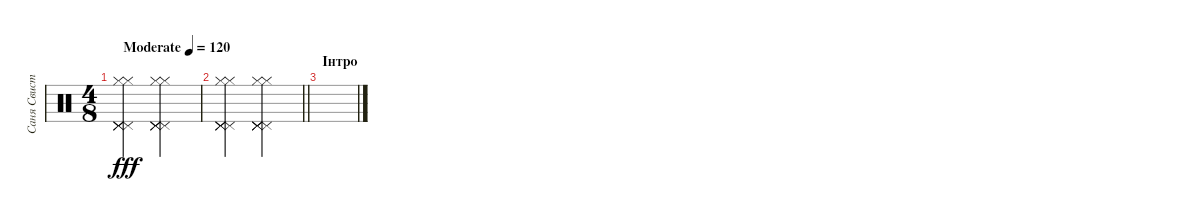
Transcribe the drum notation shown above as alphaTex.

\track ("Саня Свистун - Drums" "Саня Свист") {instrument percussion}
\staff {score}
\articulation defaults
\ts (4 8)
\tempo (120 "Moderate")
\clef neutral
\ks c
("Hi-Hat (closed)" "Hi-Hat (closed)" "Pedal Hi-Hat (hit)" "Pedal Hi-Hat (hit)" "Pedal Hi-Hat (hit)" "Pedal Hi-Hat (hit)").4{dy fff} ("Hi-Hat (closed)" "Hi-Hat (closed)" "Pedal Hi-Hat (hit)" "Pedal Hi-Hat (hit)" "Pedal Hi-Hat (hit)" "Pedal Hi-Hat (hit)").4 |
\barLineRight lightlight
("Hi-Hat (closed)" "Hi-Hat (closed)" "Pedal Hi-Hat (hit)" "Pedal Hi-Hat (hit)" "Pedal Hi-Hat (hit)" "Pedal Hi-Hat (hit)").4 ("Hi-Hat (closed)" "Hi-Hat (closed)" "Pedal Hi-Hat (hit)" "Pedal Hi-Hat (hit)" "Pedal Hi-Hat (hit)" "Pedal Hi-Hat (hit)").4 |
\section ("" "Інтро")
